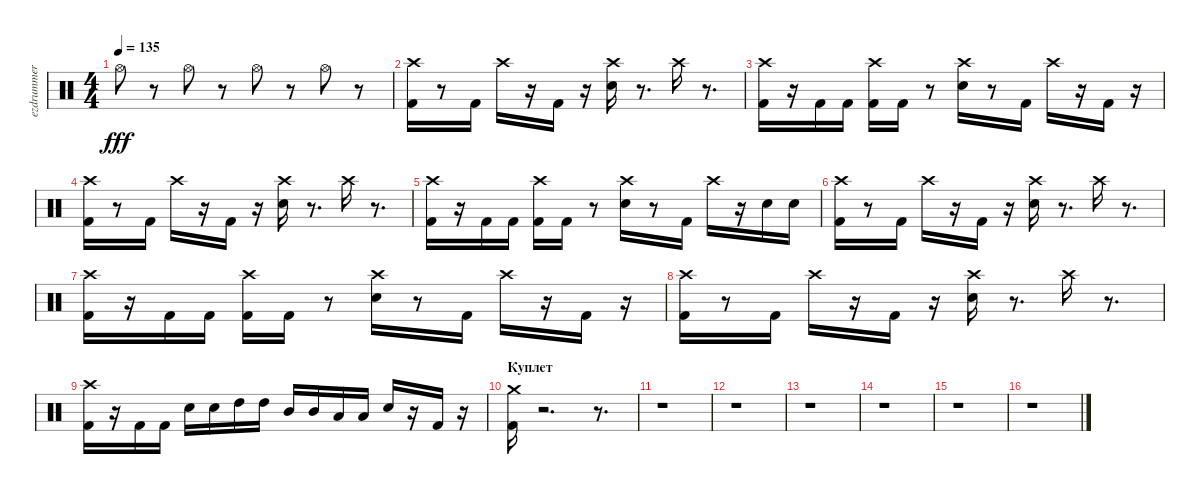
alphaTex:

\track ("ezdrummer" "ezdrummer") {instrument percussion}
\staff {score}
\articulation defaults
\ts (4 4)
\tempo 135
\clef neutral
\ks c "Hi-Hat (open)".8{dy fff}
r.8 "Hi-Hat (open)".8 r.8 "Hi-Hat (open)".8 r.8 "Hi-Hat (open)".8 r.8 |
("Kick (hit) 2" "Crash high (hit)").16 r.8 "Kick (hit) 2".16 "Crash high (hit)".16 r.16 "Kick (hit) 2".16 r.16 ("Snare (hit) 2" "Crash high (hit)").16 r.8{d} "Crash high (hit)".16 r.8{d} |
("Kick (hit) 2" "Crash high (hit)").16 r.16 "Kick (hit) 2".16 "Kick (hit) 2".16 ("Kick (hit) 2" "Crash high (hit)").16 "Kick (hit) 2".16 r.8 ("Snare (hit) 2" "Crash high (hit)").16 r.8 "Kick (hit) 2".16 "Crash high (hit)".16 r.16 "Kick (hit) 2".16 r.16 |
("Kick (hit) 2" "Crash high (hit)").16 r.8 "Kick (hit) 2".16 "Crash high (hit)".16 r.16 "Kick (hit) 2".16 r.16 ("Snare (hit) 2" "Crash high (hit)").16 r.8{d} "Crash high (hit)".16 r.8{d} |
("Kick (hit) 2" "Crash high (hit)").16 r.16 "Kick (hit) 2".16 "Kick (hit) 2".16 ("Kick (hit) 2" "Crash high (hit)").16 "Kick (hit) 2".16 r.8 ("Snare (hit) 2" "Crash high (hit)").16 r.8 "Kick (hit) 2".16 "Crash high (hit)".16 r.16 "Snare (hit) 2".16 "Snare (hit) 2".16 |
("Kick (hit) 2" "Crash high (hit)").16 r.8 "Kick (hit) 2".16 "Crash high (hit)".16 r.16 "Kick (hit) 2".16 r.16 ("Snare (hit) 2" "Crash high (hit)").16 r.8{d} "Crash high (hit)".16 r.8{d} |
("Kick (hit) 2" "Crash high (hit)").16 r.16 "Kick (hit) 2".16 "Kick (hit) 2".16 ("Kick (hit) 2" "Crash high (hit)").16 "Kick (hit) 2".16 r.8 ("Snare (hit) 2" "Crash high (hit)").16 r.8 "Kick (hit) 2".16 "Crash high (hit)".16 r.16 "Kick (hit) 2".16 r.16 |
("Kick (hit) 2" "Crash high (hit)").16 r.8 "Kick (hit) 2".16 "Crash high (hit)".16 r.16 "Kick (hit) 2".16 r.16 ("Snare (hit) 2" "Crash high (hit)").16 r.8{d} "Crash high (hit)".16 r.8{d} |
("Kick (hit) 2" "Crash high (hit)").16 r.16 "Kick (hit) 2".16 "Kick (hit) 2".16 "Snare (hit) 2".16 "Snare (hit) 2".16 "High Tom (hit)".16 "High Tom (hit)".16 "Mid Tom (hit)".16 "Mid Tom (hit)".16 "Low Tom (hit)".16 "Low Tom (hit)".16 "Snare (hit) 2".16 r.16 "Kick (hit) 2".16 r.16 |
\section ("" "Куплет")
("Kick (hit) 2" "Crash medium (hit)").16 r.2{d} r.8{d} |
r.1 |
r.1 |
r.1 |
r.1 |
r.1 |
r.1
